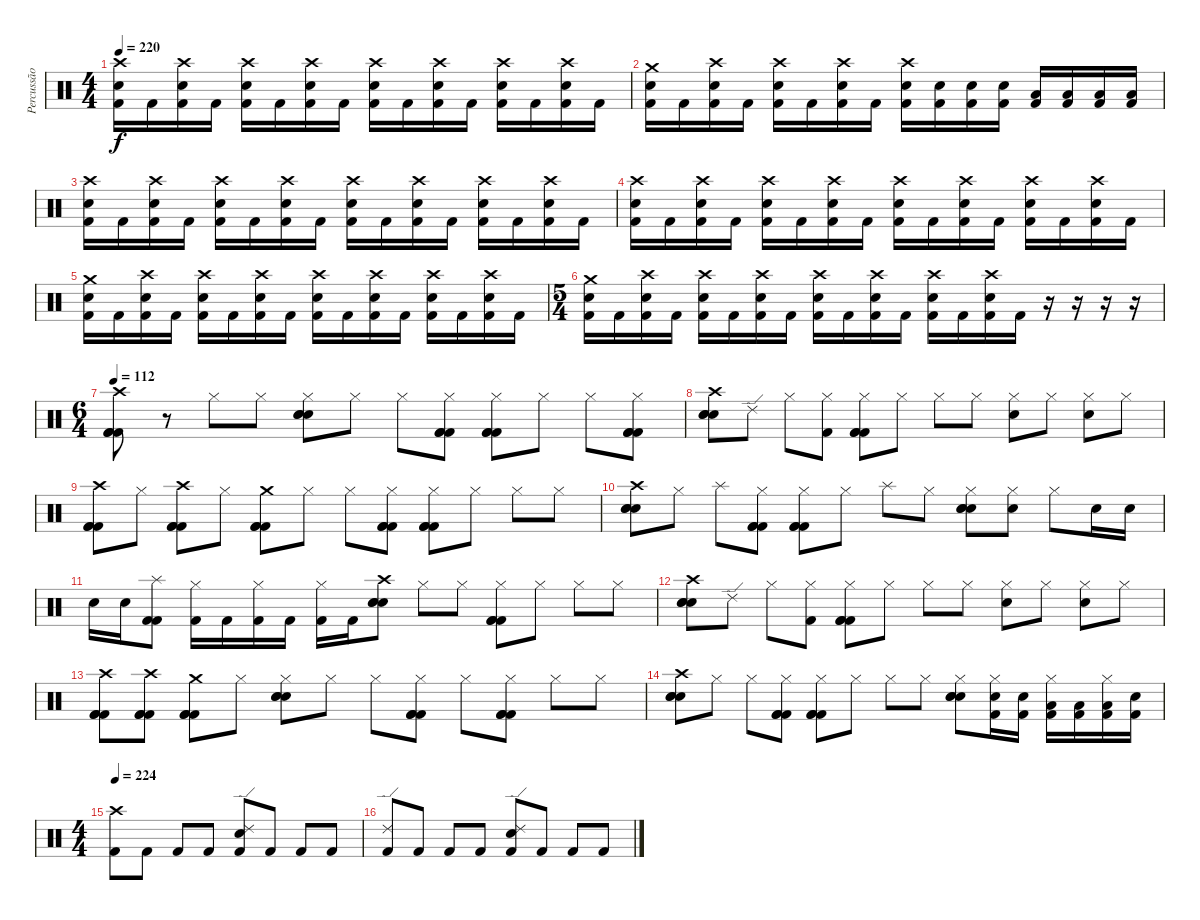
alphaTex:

\track ("Percussão" "Percussão") {instrument percussion}
\staff {score}
\articulation defaults
\ts (4 4)
\tempo 220
\clef neutral
\ks c
("Crash high (hit)" "Electric Snare (hit)" "Kick (hit) 2").16{dy f} "Kick (hit) 2".16 ("Crash high (hit)" "Electric Snare (hit)" "Kick (hit) 2").16 "Kick (hit) 2".16 ("Crash high (hit)" "Electric Snare (hit)" "Kick (hit) 2").16 "Kick (hit) 2".16 ("Crash high (hit)" "Electric Snare (hit)" "Kick (hit) 2").16 "Kick (hit) 2".16 ("Crash high (hit)" "Electric Snare (hit)" "Kick (hit) 2").16 "Kick (hit) 2".16 ("Crash high (hit)" "Electric Snare (hit)" "Kick (hit) 2").16 "Kick (hit) 2".16 ("Crash high (hit)" "Electric Snare (hit)" "Kick (hit) 2").16 "Kick (hit) 2".16 ("Crash high (hit)" "Electric Snare (hit)" "Kick (hit) 2").16 "Kick (hit) 2".16 |
("Crash medium (hit)" "Electric Snare (hit)" "Kick (hit) 2").16 "Kick (hit) 2".16 ("Crash high (hit)" "Electric Snare (hit)" "Kick (hit) 2").16 "Kick (hit) 2".16 ("Crash high (hit)" "Electric Snare (hit)" "Kick (hit) 2").16 "Kick (hit) 2".16 ("Crash high (hit)" "Electric Snare (hit)" "Kick (hit) 2").16 "Kick (hit) 2".16 ("Crash high (hit)" "Electric Snare (hit)" "Kick (hit) 2").16 ("Electric Snare (hit)" "Kick (hit) 2").16 ("Electric Snare (hit)" "Kick (hit) 2").16 ("Electric Snare (hit)" "Kick (hit) 2").16 ("Low Tom (hit)" "Kick (hit) 2").16 ("Low Tom (hit)" "Kick (hit) 2").16 ("Low Tom (hit)" "Kick (hit) 2").16 ("Low Tom (hit)" "Kick (hit) 2").16 |
("Crash high (hit)" "Electric Snare (hit)" "Kick (hit) 2").16 "Kick (hit) 2".16 ("Crash high (hit)" "Electric Snare (hit)" "Kick (hit) 2").16 "Kick (hit) 2".16 ("Crash high (hit)" "Electric Snare (hit)" "Kick (hit) 2").16 "Kick (hit) 2".16 ("Crash high (hit)" "Electric Snare (hit)" "Kick (hit) 2").16 "Kick (hit) 2".16 ("Crash high (hit)" "Electric Snare (hit)" "Kick (hit) 2").16 "Kick (hit) 2".16 ("Crash high (hit)" "Electric Snare (hit)" "Kick (hit) 2").16 "Kick (hit) 2".16 ("Crash high (hit)" "Electric Snare (hit)" "Kick (hit) 2").16 "Kick (hit) 2".16 ("Crash high (hit)" "Electric Snare (hit)" "Kick (hit) 2").16 "Kick (hit) 2".16 |
("Crash high (hit)" "Electric Snare (hit)" "Kick (hit) 2").16 "Kick (hit) 2".16 ("Crash high (hit)" "Electric Snare (hit)" "Kick (hit) 2").16 "Kick (hit) 2".16 ("Crash high (hit)" "Electric Snare (hit)" "Kick (hit) 2").16 "Kick (hit) 2".16 ("Crash high (hit)" "Electric Snare (hit)" "Kick (hit) 2").16 "Kick (hit) 2".16 ("Crash high (hit)" "Electric Snare (hit)" "Kick (hit) 2").16 "Kick (hit) 2".16 ("Crash high (hit)" "Electric Snare (hit)" "Kick (hit) 2").16 "Kick (hit) 2".16 ("Crash high (hit)" "Electric Snare (hit)" "Kick (hit) 2").16 "Kick (hit) 2".16 ("Crash high (hit)" "Electric Snare (hit)" "Kick (hit) 2").16 "Kick (hit) 2".16 |
("Crash medium (hit)" "Electric Snare (hit)" "Kick (hit) 2").16 "Kick (hit) 2".16 ("Crash high (hit)" "Electric Snare (hit)" "Kick (hit) 2").16 "Kick (hit) 2".16 ("Crash high (hit)" "Electric Snare (hit)" "Kick (hit) 2").16 "Kick (hit) 2".16 ("Crash high (hit)" "Electric Snare (hit)" "Kick (hit) 2").16 "Kick (hit) 2".16 ("Crash high (hit)" "Electric Snare (hit)" "Kick (hit) 2").16 "Kick (hit) 2".16 ("Crash high (hit)" "Electric Snare (hit)" "Kick (hit) 2").16 "Kick (hit) 2".16 ("Crash high (hit)" "Electric Snare (hit)" "Kick (hit) 2").16 "Kick (hit) 2".16 ("Crash high (hit)" "Electric Snare (hit)" "Kick (hit) 2").16 "Kick (hit) 2".16 |
\ts (5 4)
("Crash medium (hit)" "Electric Snare (hit)" "Kick (hit) 2").16 "Kick (hit) 2".16 ("Crash high (hit)" "Electric Snare (hit)" "Kick (hit) 2").16 "Kick (hit) 2".16 ("Crash high (hit)" "Electric Snare (hit)" "Kick (hit) 2").16 "Kick (hit) 2".16 ("Crash high (hit)" "Electric Snare (hit)" "Kick (hit) 2").16 "Kick (hit) 2".16 ("Crash high (hit)" "Electric Snare (hit)" "Kick (hit) 2").16 "Kick (hit) 2".16 ("Crash high (hit)" "Electric Snare (hit)" "Kick (hit) 2").16 "Kick (hit) 2".16 ("Crash high (hit)" "Electric Snare (hit)" "Kick (hit) 2").16 "Kick (hit) 2".16 ("Crash high (hit)" "Electric Snare (hit)" "Kick (hit) 2").16 "Kick (hit) 2".16 r.16 r.16 r.16 r.16 |
\ts (6 4)
\tempo 112
("Crash high (hit)" "Kick (hit) 2" "Kick (hit) 2" "Kick (hit) 2").8 r.8 "Hi-Hat (closed)".8 "Hi-Hat (closed)".8 ("Hi-Hat (closed)" "Electric Snare (hit)" "Electric Snare (hit)" "Electric Snare (hit)").8 "Hi-Hat (closed)".8 "Hi-Hat (closed)".8 ("Hi-Hat (closed)" "Kick (hit) 2" "Kick (hit) 2" "Kick (hit) 2").8 ("Hi-Hat (closed)" "Kick (hit) 2" "Kick (hit) 2" "Kick (hit) 2").8 "Hi-Hat (closed)".8 "Hi-Hat (closed)".8 ("Hi-Hat (closed)" "Kick (hit) 2" "Kick (hit) 2" "Kick (hit) 2").8 |
("Crash high (hit)" "Electric Snare (hit)" "Electric Snare (hit)" "Electric Snare (hit)").8 "Ride (edge) 2".8 "Hi-Hat (closed)".8 ("Hi-Hat (closed)" "Kick (hit) 2").8 ("Hi-Hat (closed)" "Kick (hit) 2" "Kick (hit) 2" "Kick (hit) 2").8 "Hi-Hat (closed)".8 "Hi-Hat (closed)".8 "Hi-Hat (closed)".8 ("Hi-Hat (closed)" "Electric Snare (hit)").8 "Hi-Hat (closed)".8 ("Hi-Hat (closed)" "Electric Snare (hit)").8 "Hi-Hat (closed)".8 |
("Crash high (hit)" "Kick (hit) 2" "Kick (hit) 2" "Kick (hit) 2").8 "Hi-Hat (closed)".8 ("Crash high (hit)" "Kick (hit) 2" "Kick (hit) 2" "Kick (hit) 2").8 "Hi-Hat (closed)".8 ("Crash medium (hit)" "Kick (hit) 2" "Kick (hit) 2" "Kick (hit) 2").8 "Hi-Hat (closed)".8 "Hi-Hat (closed)".8 ("Hi-Hat (closed)" "Kick (hit) 2" "Kick (hit) 2" "Kick (hit) 2").8 ("Hi-Hat (closed)" "Kick (hit) 2" "Kick (hit) 2" "Kick (hit) 2").8 "Hi-Hat (closed)".8 "Hi-Hat (closed)".8 "Hi-Hat (closed)".8 |
("Crash high (hit)" "Electric Snare (hit)" "Electric Snare (hit)" "Electric Snare (hit)").8 "Hi-Hat (closed)".8 "Splash (hit)".8 ("Hi-Hat (closed)" "Kick (hit) 2" "Kick (hit) 2" "Kick (hit) 2").8 ("Hi-Hat (closed)" "Kick (hit) 2" "Kick (hit) 2" "Kick (hit) 2").8 "Hi-Hat (closed)".8 "Splash (hit)".8 "Hi-Hat (closed)".8 ("Hi-Hat (closed)" "Electric Snare (hit)" "Electric Snare (hit)" "Electric Snare (hit)").8 ("Hi-Hat (closed)" "Electric Snare (hit)").8 "Hi-Hat (closed)".8 "Electric Snare (hit)".16 "Electric Snare (hit)".16 |
"Electric Snare (hit)".16 "Electric Snare (hit)".16 ("Splash (hit)" "Kick (hit) 2" "Kick (hit) 2").8 ("Hi-Hat (closed)" "Kick (hit) 2").16 "Kick (hit) 2".16 ("Hi-Hat (closed)" "Kick (hit) 2").16 "Kick (hit) 2".16 ("Hi-Hat (closed)" "Kick (hit) 2").16 "Kick (hit) 2".16 ("Crash high (hit)" "Electric Snare (hit)" "Electric Snare (hit)" "Electric Snare (hit)").8 "Hi-Hat (closed)".8 "Hi-Hat (closed)".8 ("Hi-Hat (closed)" "Kick (hit) 2" "Kick (hit) 2" "Kick (hit) 2").8 "Hi-Hat (closed)".8 "Hi-Hat (closed)".8 "Hi-Hat (closed)".8 |
("Crash high (hit)" "Electric Snare (hit)" "Electric Snare (hit)" "Electric Snare (hit)").8 "Ride (edge) 2".8 "Hi-Hat (closed)".8 ("Hi-Hat (closed)" "Kick (hit) 2").8 ("Hi-Hat (closed)" "Kick (hit) 2" "Kick (hit) 2" "Kick (hit) 2").8 "Hi-Hat (closed)".8 "Hi-Hat (closed)".8 "Hi-Hat (closed)".8 ("Hi-Hat (closed)" "Electric Snare (hit)").8 "Hi-Hat (closed)".8 ("Hi-Hat (closed)" "Electric Snare (hit)").8 "Hi-Hat (closed)".8 |
("Crash high (hit)" "Kick (hit) 2" "Kick (hit) 2" "Kick (hit) 2").8 ("Crash high (hit)" "Kick (hit) 2" "Kick (hit) 2" "Kick (hit) 2").8 ("Crash medium (hit)" "Kick (hit) 2" "Kick (hit) 2" "Kick (hit) 2").8 "Hi-Hat (closed)".8 ("Hi-Hat (closed)" "Electric Snare (hit)" "Electric Snare (hit)" "Electric Snare (hit)").8 "Hi-Hat (closed)".8 "Hi-Hat (closed)".8 ("Hi-Hat (closed)" "Kick (hit) 2" "Kick (hit) 2" "Kick (hit) 2").8 "Hi-Hat (closed)".8 ("Hi-Hat (closed)" "Kick (hit) 2" "Kick (hit) 2" "Kick (hit) 2").8 "Hi-Hat (closed)".8 "Hi-Hat (closed)".8 |
("Crash high (hit)" "Electric Snare (hit)" "Electric Snare (hit)" "Electric Snare (hit)").8 "Hi-Hat (closed)".8 "Hi-Hat (closed)".8 ("Hi-Hat (closed)" "Kick (hit) 2" "Kick (hit) 2" "Kick (hit) 2").8 ("Hi-Hat (closed)" "Kick (hit) 2" "Kick (hit) 2" "Kick (hit) 2").8 "Hi-Hat (closed)".8 "Hi-Hat (closed)".8 "Hi-Hat (closed)".8 ("Hi-Hat (closed)" "Electric Snare (hit)" "Electric Snare (hit)" "Electric Snare (hit)").8 ("Hi-Hat (closed)" "Electric Snare (hit)" "Kick (hit) 2").16 ("Electric Snare (hit)" "Kick (hit) 2").16 ("Hi-Hat (closed)" "Low Tom (hit)" "Kick (hit) 2").16 ("Low Tom (hit)" "Kick (hit) 2").16 ("Hi-Hat (closed)" "Low Tom (hit)" "Kick (hit) 2").16 ("Electric Snare (hit)" "Kick (hit) 2").16 |
\ts (4 4)
\tempo 224
("Crash high (hit)" "Kick (hit) 2").8 "Kick (hit) 2".8 "Kick (hit) 2".8 "Kick (hit) 2".8 ("Ride (edge) 2" "Electric Snare (hit)" "Kick (hit) 2").8 "Kick (hit) 2".8 "Kick (hit) 2".8 "Kick (hit) 2".8 |
("Ride (edge) 2" "Kick (hit) 2").8 "Kick (hit) 2".8 "Kick (hit) 2".8 "Kick (hit) 2".8 ("Ride (edge) 2" "Electric Snare (hit)" "Kick (hit) 2").8 "Kick (hit) 2".8 "Kick (hit) 2".8 "Kick (hit) 2".8
